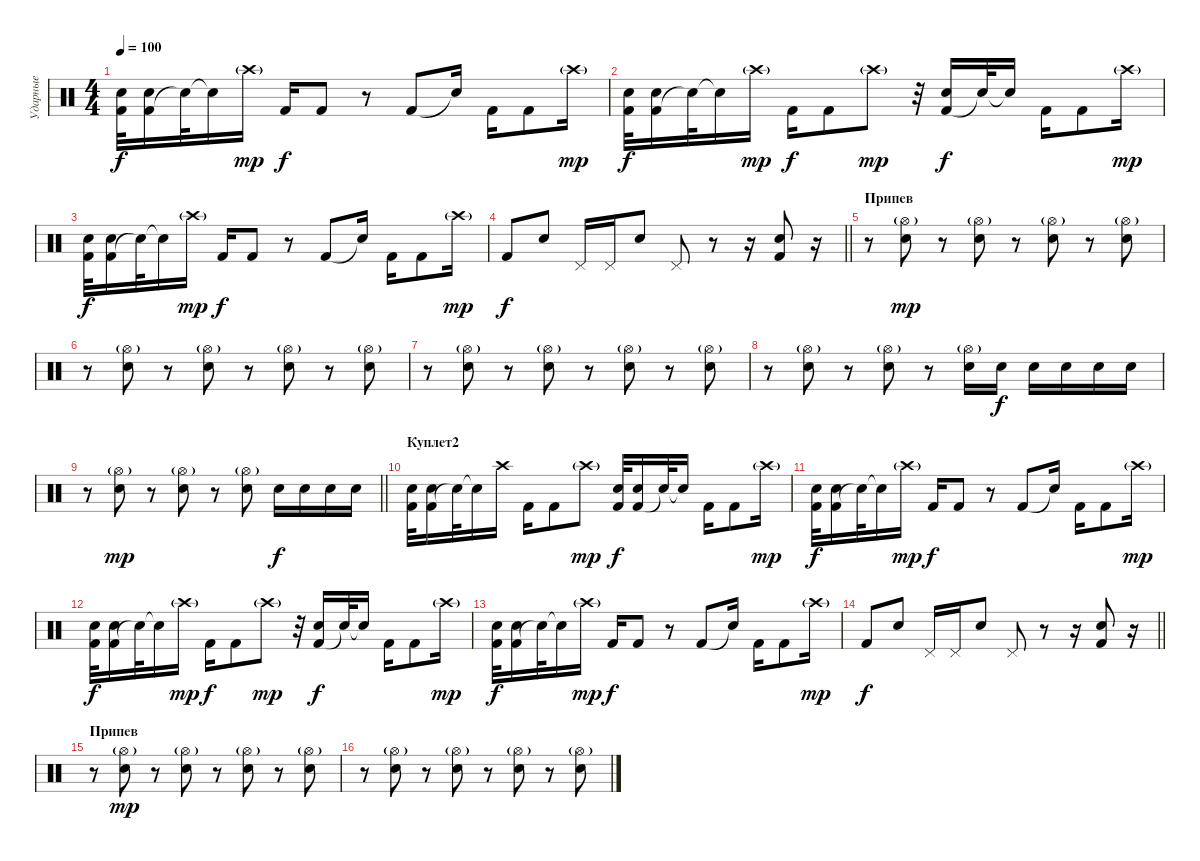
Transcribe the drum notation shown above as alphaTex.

\track ("Ударные" "Ударные") {instrument percussion}
\staff {score}
\articulation defaults
\ts (4 4)
\tempo 100
\clef neutral
\ks c
("Electric Snare (hit)" "Kick (hit) 2").32{dy f} ("Kick (hit) 2" "Electric Snare (hit)").16 "Snare (hit)"{t}.32 "Snare (hit)"{t}.16 "Crash high (hit)"{g}.16{dy mp} "Kick (hit) 2".16{dy f} "Kick (hit) 2".8 r.8 "Kick (hit) 2".8 "Snare (hit)"{t}.16 "Kick (hit) 2".16 "Kick (hit) 2".8 "Crash high (hit)"{g}.16{dy mp} |
("Electric Snare (hit)" "Kick (hit) 2").32{dy f} ("Kick (hit) 2" "Electric Snare (hit)").16 "Snare (hit)"{t}.32 "Snare (hit)"{t}.16 "Crash high (hit)"{g}.16{dy mp} "Kick (hit) 2".16{dy f} "Kick (hit) 2".8 "Crash high (hit)"{g}.8{dy mp} r.32 ("Kick (hit) 2" "Electric Snare (hit)").16{dy f} "Snare (hit)"{t}.32 "Snare (hit)"{t}.16 "Kick (hit) 2".16 "Kick (hit) 2".8 "Crash high (hit)"{g}.16{dy mp} |
("Electric Snare (hit)" "Kick (hit) 2").32{dy f} ("Kick (hit) 2" "Electric Snare (hit)").16 "Snare (hit)"{t}.32 "Snare (hit)"{t}.16 "Crash high (hit)"{g}.16{dy mp} "Kick (hit) 2".16{dy f} "Kick (hit) 2".8 r.8 "Kick (hit) 2".8 "Snare (hit)"{t}.16 "Kick (hit) 2".16 "Kick (hit) 2".8 "Crash high (hit)"{g}.16{dy mp} |
\barLineRight lightlight "Kick (hit) 2".8{dy f} "Electric Snare (hit)".8 "Pedal Hi-Hat (hit)".16 "Pedal Hi-Hat (hit)".16 "Electric Snare (hit)".8 "Pedal Hi-Hat (hit)".8
r.8 r.16 ("Kick (hit) 2" "Snare (hit) 2").8 r.16 |
\section ("" "Припев")
r.8 ("Electric Snare (hit)" "Hi-Hat (open)"{g}).8{dy mp} r.8 ("Electric Snare (hit)" "Hi-Hat (open)"{g}).8 r.8 ("Electric Snare (hit)" "Hi-Hat (open)"{g}).8 r.8 ("Electric Snare (hit)" "Hi-Hat (open)"{g}).8 |
r.8 ("Electric Snare (hit)" "Hi-Hat (open)"{g}).8 r.8 ("Electric Snare (hit)" "Hi-Hat (open)"{g}).8 r.8 ("Electric Snare (hit)" "Hi-Hat (open)"{g}).8 r.8 ("Electric Snare (hit)" "Hi-Hat (open)"{g}).8 |
r.8 ("Electric Snare (hit)" "Hi-Hat (open)"{g}).8 r.8 ("Electric Snare (hit)" "Hi-Hat (open)"{g}).8 r.8 ("Electric Snare (hit)" "Hi-Hat (open)"{g}).8 r.8 ("Electric Snare (hit)" "Hi-Hat (open)"{g}).8 |
r.8 ("Electric Snare (hit)" "Hi-Hat (open)"{g}).8 r.8 ("Electric Snare (hit)" "Hi-Hat (open)"{g}).8 r.8 ("Electric Snare (hit)" "Hi-Hat (open)"{g}).16 "Electric Snare (hit)".16{dy f} "Electric Snare (hit)".16 "Electric Snare (hit)".16 "Electric Snare (hit)".16 "Electric Snare (hit)".16 |
\barLineRight lightlight
r.8 ("Electric Snare (hit)" "Hi-Hat (open)"{g}).8{dy mp} r.8 ("Electric Snare (hit)" "Hi-Hat (open)"{g}).8 r.8 ("Electric Snare (hit)" "Hi-Hat (open)"{g}).8 "Electric Snare (hit)".16{dy f} "Electric Snare (hit)".16 "Electric Snare (hit)".16 "Electric Snare (hit)".16 |
\section ("" "Куплет2")
("Electric Snare (hit)" "Kick (hit) 2").32 ("Kick (hit) 2" "Electric Snare (hit)").16 "Snare (hit)"{t}.32 "Snare (hit)"{t}.16 "Crash high (hit)".16 "Kick (hit) 2".16 "Kick (hit) 2".8 "Crash high (hit)"{g}.8{dy mp} ("Electric Snare (hit)" "Kick (hit) 2").32{dy f} ("Kick (hit) 2" "Electric Snare (hit)").16 "Snare (hit)"{t}.32 "Snare (hit)"{t}.16 "Kick (hit) 2".16 "Kick (hit) 2".8 "Crash high (hit)"{g}.16{dy mp} |
("Electric Snare (hit)" "Kick (hit) 2").32{dy f} ("Kick (hit) 2" "Electric Snare (hit)").16 "Snare (hit)"{t}.32 "Snare (hit)"{t}.16 "Crash high (hit)"{g}.16{dy mp} "Kick (hit) 2".16{dy f} "Kick (hit) 2".8 r.8 "Kick (hit) 2".8 "Snare (hit)"{t}.16 "Kick (hit) 2".16 "Kick (hit) 2".8 "Crash high (hit)"{g}.16{dy mp} |
("Electric Snare (hit)" "Kick (hit) 2").32{dy f} ("Kick (hit) 2" "Electric Snare (hit)").16 "Snare (hit)"{t}.32 "Snare (hit)"{t}.16 "Crash high (hit)"{g}.16{dy mp} "Kick (hit) 2".16{dy f} "Kick (hit) 2".8 "Crash high (hit)"{g}.8{dy mp} r.32 ("Kick (hit) 2" "Electric Snare (hit)").16{dy f} "Snare (hit)"{t}.32 "Snare (hit)"{t}.16 "Kick (hit) 2".16 "Kick (hit) 2".8 "Crash high (hit)"{g}.16{dy mp} |
("Electric Snare (hit)" "Kick (hit) 2").32{dy f} ("Kick (hit) 2" "Electric Snare (hit)").16 "Snare (hit)"{t}.32 "Snare (hit)"{t}.16 "Crash high (hit)"{g}.16{dy mp} "Kick (hit) 2".16{dy f} "Kick (hit) 2".8 r.8 "Kick (hit) 2".8 "Snare (hit)"{t}.16 "Kick (hit) 2".16 "Kick (hit) 2".8 "Crash high (hit)"{g}.16{dy mp} |
\barLineRight lightlight "Kick (hit) 2".8{dy f} "Electric Snare (hit)".8 "Pedal Hi-Hat (hit)".16 "Pedal Hi-Hat (hit)".16 "Electric Snare (hit)".8 "Pedal Hi-Hat (hit)".8
r.8 r.16 ("Kick (hit) 2" "Snare (hit) 2").8 r.16 |
\section ("" "Припев")
r.8 ("Electric Snare (hit)" "Hi-Hat (open)"{g}).8{dy mp} r.8 ("Electric Snare (hit)" "Hi-Hat (open)"{g}).8 r.8 ("Electric Snare (hit)" "Hi-Hat (open)"{g}).8 r.8 ("Electric Snare (hit)" "Hi-Hat (open)"{g}).8 |
r.8 ("Electric Snare (hit)" "Hi-Hat (open)"{g}).8 r.8 ("Electric Snare (hit)" "Hi-Hat (open)"{g}).8 r.8 ("Electric Snare (hit)" "Hi-Hat (open)"{g}).8 r.8 ("Electric Snare (hit)" "Hi-Hat (open)"{g}).8
